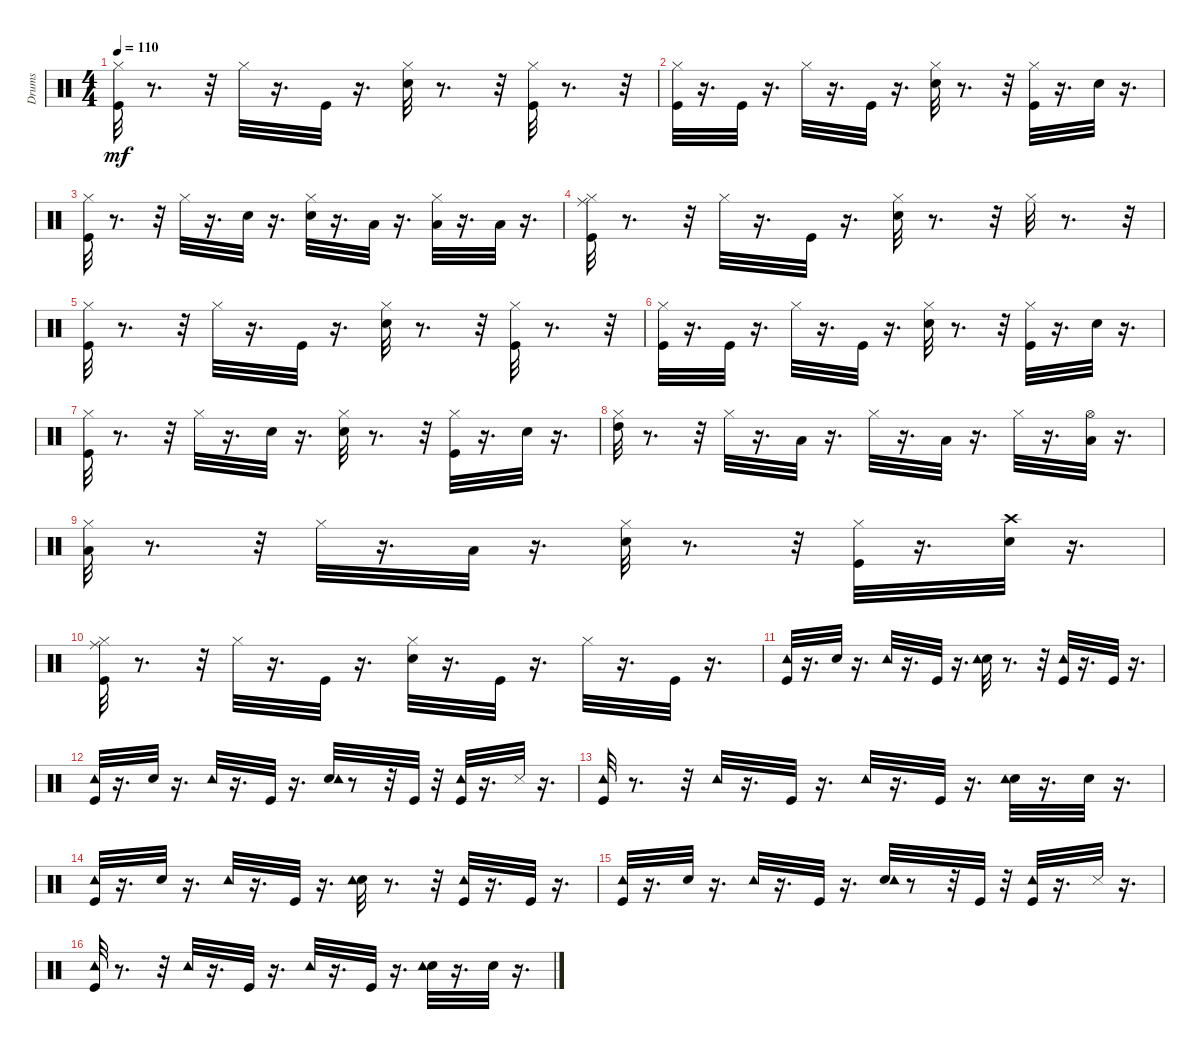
\track ("Drums" "Drums") {instrument percussion}
\staff {score}
\articulation defaults
\ts (4 4)
\tempo 110
\clef neutral
\ks c
("Kick (hit)" "Hi-Hat (closed)").32{dy mf} r.8{d} r.32 "Hi-Hat (closed)".32 r.16{d} "Kick (hit)".32 r.16{d} ("Snare (hit) 2" "Hi-Hat (closed)").32 r.8{d} r.32 ("Kick (hit)" "Hi-Hat (closed)").32 r.8{d} r.32 |
("Kick (hit)" "Hi-Hat (closed)").32 r.16{d} "Kick (hit)".32 r.16{d} "Hi-Hat (closed)".32 r.16{d} "Kick (hit)".32 r.16{d} ("Snare (hit) 2" "Hi-Hat (closed)").32 r.8{d} r.32 ("Kick (hit)" "Hi-Hat (closed)").32 r.16{d} "Snare (hit) 2".32 r.16{d} |
("Kick (hit)" "Hi-Hat (closed)").32 r.8{d} r.32 "Hi-Hat (closed)".32 r.16{d} "Snare (hit) 2".32 r.16{d} ("Snare (hit) 2" "Hi-Hat (closed)").32 r.16{d} "Low Floor Tom (hit)".32 r.16{d} ("Low Tom (hit)" "Hi-Hat (closed)").32 r.16{d} "Low Floor Tom (hit)".32 r.16{d} |
("Kick (hit)" "Hi-Hat (closed)" "Ride (middle)").32 r.8{d} r.32 "Hi-Hat (closed)".32 r.16{d} "Kick (hit)".32 r.16{d} ("Snare (hit) 2" "Hi-Hat (closed)").32 r.8{d} r.32 "Hi-Hat (closed)".32 r.8{d} r.32 |
("Kick (hit)" "Hi-Hat (closed)").32 r.8{d} r.32 "Hi-Hat (closed)".32 r.16{d} "Kick (hit)".32 r.16{d} ("Snare (hit) 2" "Hi-Hat (closed)").32 r.8{d} r.32 ("Kick (hit)" "Hi-Hat (closed)").32 r.8{d} r.32 |
("Kick (hit)" "Hi-Hat (closed)").32 r.16{d} "Kick (hit)".32 r.16{d} "Hi-Hat (closed)".32 r.16{d} "Kick (hit)".32 r.16{d} ("Snare (hit) 2" "Hi-Hat (closed)").32 r.8{d} r.32 ("Kick (hit)" "Hi-Hat (closed)").32 r.16{d} "Snare (hit) 2".32 r.16{d} |
("Kick (hit)" "Hi-Hat (closed)").32 r.8{d} r.32 "Hi-Hat (closed)".32 r.16{d} "Snare (hit) 2".32 r.16{d} ("Snare (hit) 2" "Hi-Hat (closed)").32 r.8{d} r.32 ("Kick (hit)" "Hi-Hat (closed)").32 r.16{d} "Snare (hit) 2".32 r.16{d} |
("High Tom (hit)" "Hi-Hat (closed)").32 r.8{d} r.32 "Hi-Hat (closed)".32 r.16{d} "Low Tom (hit)".32 r.16{d} "Hi-Hat (closed)".32 r.16{d} "Low Floor Tom (hit)".32 r.16{d} "Hi-Hat (closed)".32 r.16{d} ("Low Floor Tom (hit)" "Hi-Hat (open)").32 r.16{d} |
("Low Floor Tom (hit)" "Hi-Hat (closed)").32 r.8{d} r.32 "Hi-Hat (closed)".32 r.16{d} "Low Floor Tom (hit)".32 r.16{d} ("Snare (hit) 2" "Hi-Hat (closed)").32 r.8{d} r.32 ("Kick (hit)" "Hi-Hat (closed)").32 r.16{d} ("Snare (hit) 2" "Crash high (hit)").32 r.16{d} |
("Kick (hit)" "Hi-Hat (closed)" "Ride (middle)").32 r.8{d} r.32 "Hi-Hat (closed)".32 r.16{d} "Kick (hit)".32 r.16{d} ("Snare (hit) 2" "Hi-Hat (closed)").32 r.16{d} "Kick (hit)".32 r.16{d} "Hi-Hat (closed)".32 r.16{d} "Kick (hit)".32 r.16{d} |
("Kick (hit)" "Tambourine (hit)").32 r.16{d} "Snare (hit) 2".32 r.16{d} "Tambourine (hit)".32 r.16{d} "Kick (hit)".32 r.16{d} ("Snare (hit) 2" "Tambourine (hit)").32 r.8{d} r.32 ("Kick (hit)" "Tambourine (hit)").32 r.16{d} "Kick (hit)".32 r.16{d} |
("Kick (hit)" "Tambourine (hit)").32 r.16{d} "Snare (hit) 2".32 r.16{d} "Tambourine (hit)".32 r.16{d} "Kick (hit)".32 r.16{d} ("Snare (hit) 2" "Tambourine (hit)").32 r.8 r.32 "Kick (hit)".32 r.32 ("Kick (hit)" "Tambourine (hit)").32 r.16{d} "Snare (side stick) 3".32 r.16{d} |
("Kick (hit)" "Tambourine (hit)").32 r.8{d} r.32 "Tambourine (hit)".32 r.16{d} "Kick (hit)".32 r.16{d} "Tambourine (hit)".32 r.16{d} "Kick (hit)".32 r.16{d} ("Snare (hit) 2" "Tambourine (hit)").32 r.16{d} "Snare (hit) 2".32 r.16{d} |
("Kick (hit)" "Tambourine (hit)").32 r.16{d} "Snare (hit) 2".32 r.16{d} "Tambourine (hit)".32 r.16{d} "Kick (hit)".32 r.16{d} ("Snare (hit) 2" "Tambourine (hit)").32 r.8{d} r.32 ("Kick (hit)" "Tambourine (hit)").32 r.16{d} "Kick (hit)".32 r.16{d} |
("Kick (hit)" "Tambourine (hit)").32 r.16{d} "Snare (hit) 2".32 r.16{d} "Tambourine (hit)".32 r.16{d} "Kick (hit)".32 r.16{d} ("Snare (hit) 2" "Tambourine (hit)").32 r.8 r.32 "Kick (hit)".32 r.32 ("Kick (hit)" "Tambourine (hit)").32 r.16{d} "Snare (side stick) 3".32 r.16{d} |
("Kick (hit)" "Tambourine (hit)").32 r.8{d} r.32 "Tambourine (hit)".32 r.16{d} "Kick (hit)".32 r.16{d} "Tambourine (hit)".32 r.16{d} "Kick (hit)".32 r.16{d} ("Snare (hit) 2" "Tambourine (hit)").32 r.16{d} "Snare (hit) 2".32 r.16{d}
